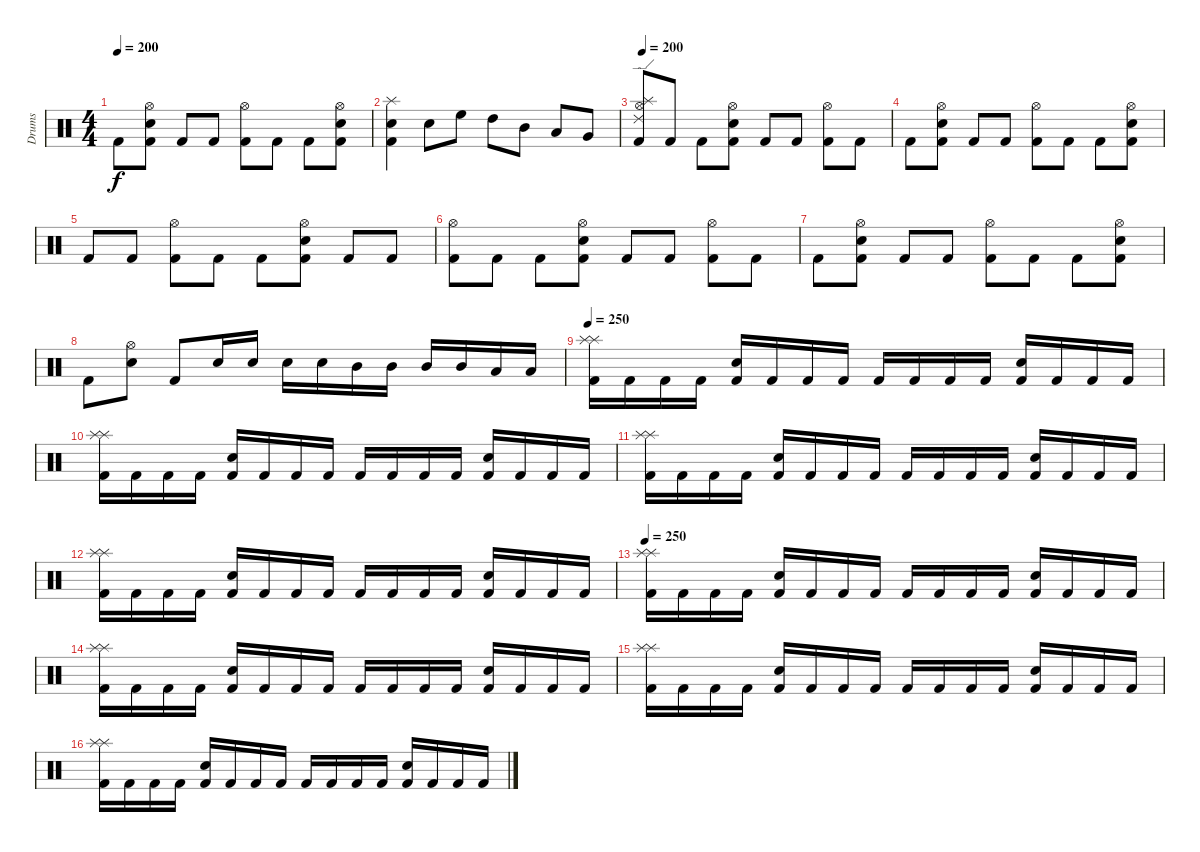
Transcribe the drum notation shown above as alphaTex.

\track ("Drums" "Drums") {instrument percussion}
\staff {score}
\articulation defaults
\ts (4 4)
\tempo 200
\clef neutral
\ks c "Kick (hit) 2".8{dy f}
("Kick (hit) 2" "Electric Snare (hit)" "Hi-Hat (open)").8 "Kick (hit) 2".8 "Kick (hit) 2".8 ("Kick (hit) 2" "Hi-Hat (open)").8 "Kick (hit) 2".8 "Kick (hit) 2".8 ("Kick (hit) 2" "Electric Snare (hit)" "Hi-Hat (open)").8 |
("Kick (hit) 2" "Snare (hit) 2" "Splash (hit)").4 "Snare (hit) 2".8 "High Floor Tom (hit)".8 "High Tom (hit)".8 "Mid Tom (hit)".8 "Low Tom (hit)".8 "Very Low Tom (hit)".8 |
\tempo 200
("Kick (hit) 2" "Ride (edge) 2" "Splash (hit)" "Hi-Hat (open)").8 "Kick (hit) 2".8 "Kick (hit) 2".8 ("Kick (hit) 2" "Electric Snare (hit)" "Hi-Hat (open)").8 "Kick (hit) 2".8 "Kick (hit) 2".8 ("Kick (hit) 2" "Hi-Hat (open)").8 "Kick (hit) 2".8 |
"Kick (hit) 2".8 ("Kick (hit) 2" "Electric Snare (hit)" "Hi-Hat (open)").8 "Kick (hit) 2".8 "Kick (hit) 2".8 ("Kick (hit) 2" "Hi-Hat (open)").8 "Kick (hit) 2".8 "Kick (hit) 2".8 ("Kick (hit) 2" "Electric Snare (hit)" "Hi-Hat (open)").8 |
"Kick (hit) 2".8 "Kick (hit) 2".8 ("Kick (hit) 2" "Hi-Hat (open)").8 "Kick (hit) 2".8 "Kick (hit) 2".8 ("Kick (hit) 2" "Electric Snare (hit)" "Hi-Hat (open)").8 "Kick (hit) 2".8 "Kick (hit) 2".8 |
("Kick (hit) 2" "Hi-Hat (open)").8 "Kick (hit) 2".8 "Kick (hit) 2".8 ("Kick (hit) 2" "Electric Snare (hit)" "Hi-Hat (open)").8 "Kick (hit) 2".8 "Kick (hit) 2".8 ("Kick (hit) 2" "Hi-Hat (open)").8 "Kick (hit) 2".8 |
"Kick (hit) 2".8 ("Kick (hit) 2" "Electric Snare (hit)" "Hi-Hat (open)").8 "Kick (hit) 2".8 "Kick (hit) 2".8 ("Kick (hit) 2" "Hi-Hat (open)").8 "Kick (hit) 2".8 "Kick (hit) 2".8 ("Kick (hit) 2" "Electric Snare (hit)" "Hi-Hat (open)").8 |
"Kick (hit) 2".8 ("Electric Snare (hit)" "Hi-Hat (open)").8 "Kick (hit) 2".8 "Snare (hit) 2".16 "Snare (hit) 2".16 "Snare (hit) 2".16 "Snare (hit) 2".16 "Mid Tom (hit)".16 "Mid Tom (hit)".16 "Mid Tom (hit)".16 "Mid Tom (hit)".16 "Low Tom (hit)".16 "Low Tom (hit)".16 |
\tempo 250
("Kick (hit) 2" "Splash (hit)" "Splash (hit)").16 "Kick (hit) 2".16 "Kick (hit) 2".16 "Kick (hit) 2".16 ("Kick (hit) 2" "Electric Snare (hit)").16 "Kick (hit) 2".16 "Kick (hit) 2".16 "Kick (hit) 2".16 "Kick (hit) 2".16 "Kick (hit) 2".16 "Kick (hit) 2".16 "Kick (hit) 2".16 ("Kick (hit) 2" "Electric Snare (hit)").16 "Kick (hit) 2".16 "Kick (hit) 2".16 "Kick (hit) 2".16 |
("Kick (hit) 2" "Splash (hit)" "Splash (hit)").16 "Kick (hit) 2".16 "Kick (hit) 2".16 "Kick (hit) 2".16 ("Kick (hit) 2" "Electric Snare (hit)").16 "Kick (hit) 2".16 "Kick (hit) 2".16 "Kick (hit) 2".16 "Kick (hit) 2".16 "Kick (hit) 2".16 "Kick (hit) 2".16 "Kick (hit) 2".16 ("Kick (hit) 2" "Electric Snare (hit)").16 "Kick (hit) 2".16 "Kick (hit) 2".16 "Kick (hit) 2".16 |
("Kick (hit) 2" "Splash (hit)" "Splash (hit)").16 "Kick (hit) 2".16 "Kick (hit) 2".16 "Kick (hit) 2".16 ("Kick (hit) 2" "Electric Snare (hit)").16 "Kick (hit) 2".16 "Kick (hit) 2".16 "Kick (hit) 2".16 "Kick (hit) 2".16 "Kick (hit) 2".16 "Kick (hit) 2".16 "Kick (hit) 2".16 ("Kick (hit) 2" "Electric Snare (hit)").16 "Kick (hit) 2".16 "Kick (hit) 2".16 "Kick (hit) 2".16 |
("Kick (hit) 2" "Splash (hit)" "Splash (hit)").16 "Kick (hit) 2".16 "Kick (hit) 2".16 "Kick (hit) 2".16 ("Kick (hit) 2" "Electric Snare (hit)").16 "Kick (hit) 2".16 "Kick (hit) 2".16 "Kick (hit) 2".16 "Kick (hit) 2".16 "Kick (hit) 2".16 "Kick (hit) 2".16 "Kick (hit) 2".16 ("Kick (hit) 2" "Electric Snare (hit)").16 "Kick (hit) 2".16 "Kick (hit) 2".16 "Kick (hit) 2".16 |
\tempo 250
("Kick (hit) 2" "Splash (hit)" "Splash (hit)").16 "Kick (hit) 2".16 "Kick (hit) 2".16 "Kick (hit) 2".16 ("Kick (hit) 2" "Electric Snare (hit)").16 "Kick (hit) 2".16 "Kick (hit) 2".16 "Kick (hit) 2".16 "Kick (hit) 2".16 "Kick (hit) 2".16 "Kick (hit) 2".16 "Kick (hit) 2".16 ("Kick (hit) 2" "Electric Snare (hit)").16 "Kick (hit) 2".16 "Kick (hit) 2".16 "Kick (hit) 2".16 |
("Kick (hit) 2" "Splash (hit)" "Splash (hit)").16 "Kick (hit) 2".16 "Kick (hit) 2".16 "Kick (hit) 2".16 ("Kick (hit) 2" "Electric Snare (hit)").16 "Kick (hit) 2".16 "Kick (hit) 2".16 "Kick (hit) 2".16 "Kick (hit) 2".16 "Kick (hit) 2".16 "Kick (hit) 2".16 "Kick (hit) 2".16 ("Kick (hit) 2" "Electric Snare (hit)").16 "Kick (hit) 2".16 "Kick (hit) 2".16 "Kick (hit) 2".16 |
("Kick (hit) 2" "Splash (hit)" "Splash (hit)").16 "Kick (hit) 2".16 "Kick (hit) 2".16 "Kick (hit) 2".16 ("Kick (hit) 2" "Electric Snare (hit)").16 "Kick (hit) 2".16 "Kick (hit) 2".16 "Kick (hit) 2".16 "Kick (hit) 2".16 "Kick (hit) 2".16 "Kick (hit) 2".16 "Kick (hit) 2".16 ("Kick (hit) 2" "Electric Snare (hit)").16 "Kick (hit) 2".16 "Kick (hit) 2".16 "Kick (hit) 2".16 |
("Kick (hit) 2" "Splash (hit)" "Splash (hit)").16 "Kick (hit) 2".16 "Kick (hit) 2".16 "Kick (hit) 2".16 ("Kick (hit) 2" "Electric Snare (hit)").16 "Kick (hit) 2".16 "Kick (hit) 2".16 "Kick (hit) 2".16 "Kick (hit) 2".16 "Kick (hit) 2".16 "Kick (hit) 2".16 "Kick (hit) 2".16 ("Kick (hit) 2" "Electric Snare (hit)").16 "Kick (hit) 2".16 "Kick (hit) 2".16 "Kick (hit) 2".16
